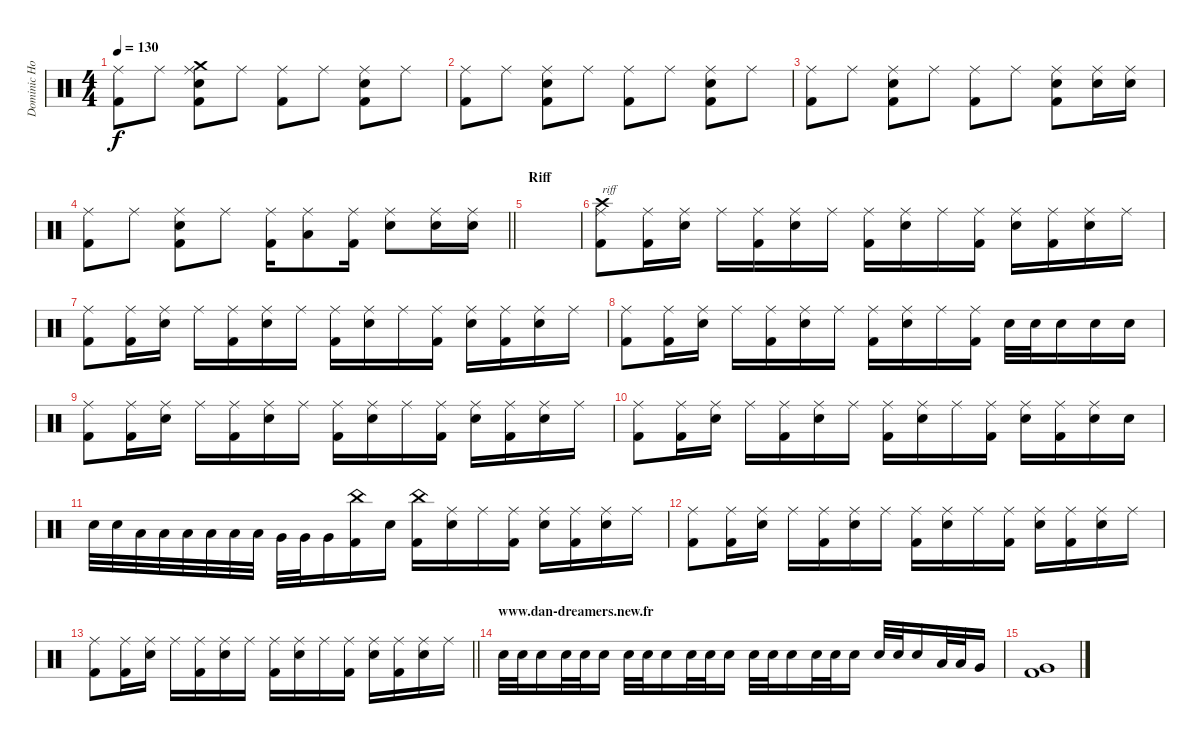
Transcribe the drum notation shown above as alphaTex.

\track ("Dominic Howard" "Dominic Ho") {instrument percussion}
\staff {score}
\articulation defaults
\ts (4 4)
\tempo 130
\clef neutral
\ks c
("Ride (middle)" "Kick (hit) 2").8{dy f} "Ride (middle)".8 ("Crash medium (hit)" "Ride (middle)" "Kick (hit) 2" "Electric Snare (hit)").8 "Ride (middle)".8 ("Ride (middle)" "Kick (hit) 2").8 "Ride (middle)".8 ("Ride (middle)" "Kick (hit) 2" "Electric Snare (hit)").8 "Ride (middle)".8 |
("Ride (middle)" "Kick (hit) 2").8 "Ride (middle)".8 ("Ride (middle)" "Kick (hit) 2" "Electric Snare (hit)").8 "Ride (middle)".8 ("Ride (middle)" "Kick (hit) 2").8 "Ride (middle)".8 ("Ride (middle)" "Kick (hit) 2" "Electric Snare (hit)").8 "Ride (middle)".8 |
("Ride (middle)" "Kick (hit) 2").8 "Ride (middle)".8 ("Ride (middle)" "Kick (hit) 2" "Electric Snare (hit)").8 "Ride (middle)".8 ("Ride (middle)" "Kick (hit) 2").8 "Ride (middle)".8 ("Ride (middle)" "Kick (hit) 2" "Electric Snare (hit)").8 ("Ride (middle)" "Electric Snare (hit)").16 ("Ride (middle)" "Electric Snare (hit)").16 |
\barLineRight lightlight
("Ride (middle)" "Kick (hit) 2").8 "Ride (middle)".8 ("Ride (middle)" "Kick (hit) 2" "Electric Snare (hit)").8 "Ride (middle)".8 ("Ride (middle)" "Kick (hit) 2").16 ("Ride (middle)" "Low Tom (hit)").8 ("Ride (middle)" "Kick (hit) 2").16 ("Ride (middle)" "Electric Snare (hit)").8 ("Ride (middle)" "Electric Snare (hit)").16 ("Ride (middle)" "Electric Snare (hit)").16 |
\section ("" "Riff")
|
("Crash high (hit)" "Ride (middle)" "Kick (hit) 2").8{txt "riff"} ("Ride (middle)" "Kick (hit) 2").16 ("Ride (middle)" "Electric Snare (hit)").16 "Ride (middle)".16 ("Ride (middle)" "Kick (hit) 2").16 ("Ride (middle)" "Electric Snare (hit)").16 "Ride (middle)".16 ("Ride (middle)" "Kick (hit) 2").16 ("Ride (middle)" "Electric Snare (hit)").16 "Ride (middle)".16 ("Ride (middle)" "Kick (hit) 2").16 ("Ride (middle)" "Electric Snare (hit)").16 ("Ride (middle)" "Kick (hit) 2").16 ("Ride (middle)" "Electric Snare (hit)").16 "Ride (middle)".16 |
("Ride (middle)" "Kick (hit) 2").8 ("Ride (middle)" "Kick (hit) 2").16 ("Ride (middle)" "Electric Snare (hit)").16 "Ride (middle)".16 ("Ride (middle)" "Kick (hit) 2").16 ("Ride (middle)" "Electric Snare (hit)").16 "Ride (middle)".16 ("Ride (middle)" "Kick (hit) 2").16 ("Ride (middle)" "Electric Snare (hit)").16 "Ride (middle)".16 ("Ride (middle)" "Kick (hit) 2").16 ("Ride (middle)" "Electric Snare (hit)").16 ("Ride (middle)" "Kick (hit) 2").16 ("Ride (middle)" "Electric Snare (hit)").16 "Ride (middle)".16 |
("Ride (middle)" "Kick (hit) 2").8 ("Ride (middle)" "Kick (hit) 2").16 ("Ride (middle)" "Electric Snare (hit)").16 "Ride (middle)".16 ("Ride (middle)" "Kick (hit) 2").16 ("Ride (middle)" "Electric Snare (hit)").16 "Ride (middle)".16 ("Ride (middle)" "Kick (hit) 2").16 ("Ride (middle)" "Electric Snare (hit)").16 "Ride (middle)".16 ("Ride (middle)" "Kick (hit) 2").16 "Electric Snare (hit)".32 "Electric Snare (hit)".32 "Electric Snare (hit)".16 "Electric Snare (hit)".16 "Electric Snare (hit)".16 |
("Ride (middle)" "Kick (hit) 2").8 ("Ride (middle)" "Kick (hit) 2").16 ("Ride (middle)" "Electric Snare (hit)").16 "Ride (middle)".16 ("Ride (middle)" "Kick (hit) 2").16 ("Ride (middle)" "Electric Snare (hit)").16 "Ride (middle)".16 ("Ride (middle)" "Kick (hit) 2").16 ("Ride (middle)" "Electric Snare (hit)").16 "Ride (middle)".16 ("Ride (middle)" "Kick (hit) 2").16 ("Ride (middle)" "Electric Snare (hit)").16 ("Ride (middle)" "Kick (hit) 2").16 ("Ride (middle)" "Electric Snare (hit)").16 "Ride (middle)".16 |
("Ride (middle)" "Kick (hit) 2").8 ("Ride (middle)" "Kick (hit) 2").16 ("Ride (middle)" "Electric Snare (hit)").16 "Ride (middle)".16 ("Ride (middle)" "Kick (hit) 2").16 ("Ride (middle)" "Electric Snare (hit)").16 "Ride (middle)".16 ("Ride (middle)" "Kick (hit) 2").16 ("Ride (middle)" "Electric Snare (hit)").16 "Ride (middle)".16 ("Ride (middle)" "Kick (hit) 2").16 ("Ride (middle)" "Electric Snare (hit)").16 ("Ride (middle)" "Kick (hit) 2").16 ("Ride (middle)" "Electric Snare (hit)").16 "Electric Snare (hit)".16 |
"Electric Snare (hit)".32 "Electric Snare (hit)".32 "Low Tom (hit)".32 "Low Tom (hit)".32 "Low Tom (hit)".32 "Low Tom (hit)".32 "Low Floor Tom (hit)".32 "Low Floor Tom (hit)".32 "Very Low Tom (hit)".32 "Very Low Tom (hit)".32 "Very Low Tom (hit)".16 ("Kick (hit) 2" "China (hit)").16 "Electric Snare (hit)".16 ("China (hit)" "Kick (hit) 2").16 ("Ride (middle)" "Electric Snare (hit)").16 "Ride (middle)".16 ("Ride (middle)" "Kick (hit) 2").16 ("Ride (middle)" "Electric Snare (hit)").16 ("Ride (middle)" "Kick (hit) 2").16 ("Ride (middle)" "Electric Snare (hit)").16 "Ride (middle)".16 |
("Ride (middle)" "Kick (hit) 2").8 ("Ride (middle)" "Kick (hit) 2").16 ("Ride (middle)" "Electric Snare (hit)").16 "Ride (middle)".16 ("Ride (middle)" "Kick (hit) 2").16 ("Ride (middle)" "Electric Snare (hit)").16 "Ride (middle)".16 ("Ride (middle)" "Kick (hit) 2").16 ("Ride (middle)" "Electric Snare (hit)").16 "Ride (middle)".16 ("Ride (middle)" "Kick (hit) 2").16 ("Ride (middle)" "Electric Snare (hit)").16 ("Ride (middle)" "Kick (hit) 2").16 ("Ride (middle)" "Electric Snare (hit)").16 "Ride (middle)".16 |
\barLineRight lightlight
("Ride (middle)" "Kick (hit) 2").8 ("Ride (middle)" "Kick (hit) 2").16 ("Ride (middle)" "Electric Snare (hit)").16 "Ride (middle)".16 ("Ride (middle)" "Kick (hit) 2").16 ("Ride (middle)" "Electric Snare (hit)").16 "Ride (middle)".16 ("Ride (middle)" "Kick (hit) 2").16 ("Ride (middle)" "Electric Snare (hit)").16 "Ride (middle)".16 ("Ride (middle)" "Kick (hit) 2").16 ("Ride (middle)" "Electric Snare (hit)").16 ("Ride (middle)" "Kick (hit) 2").16 ("Ride (middle)" "Electric Snare (hit)").16 "Ride (middle)".16 |
\section ("" "www.dan-dreamers.new.fr")
"Electric Snare (hit)".32 "Electric Snare (hit)".32 "Electric Snare (hit)".16 "Electric Snare (hit)".32 "Electric Snare (hit)".32 "Electric Snare (hit)".16 "Electric Snare (hit)".32 "Electric Snare (hit)".32 "Electric Snare (hit)".16 "Electric Snare (hit)".32 "Electric Snare (hit)".32 "Electric Snare (hit)".16 "Electric Snare (hit)".32 "Electric Snare (hit)".32 "Electric Snare (hit)".16 "Electric Snare (hit)".32 "Electric Snare (hit)".32 "Electric Snare (hit)".16 "Electric Snare (hit)".32 "Electric Snare (hit)".32 "Electric Snare (hit)".16 "Low Floor Tom (hit)".32 "Low Floor Tom (hit)".32 "Very Low Tom (hit)".16 |
("Very Low Tom (hit)" "Kick (hit) 2").1
